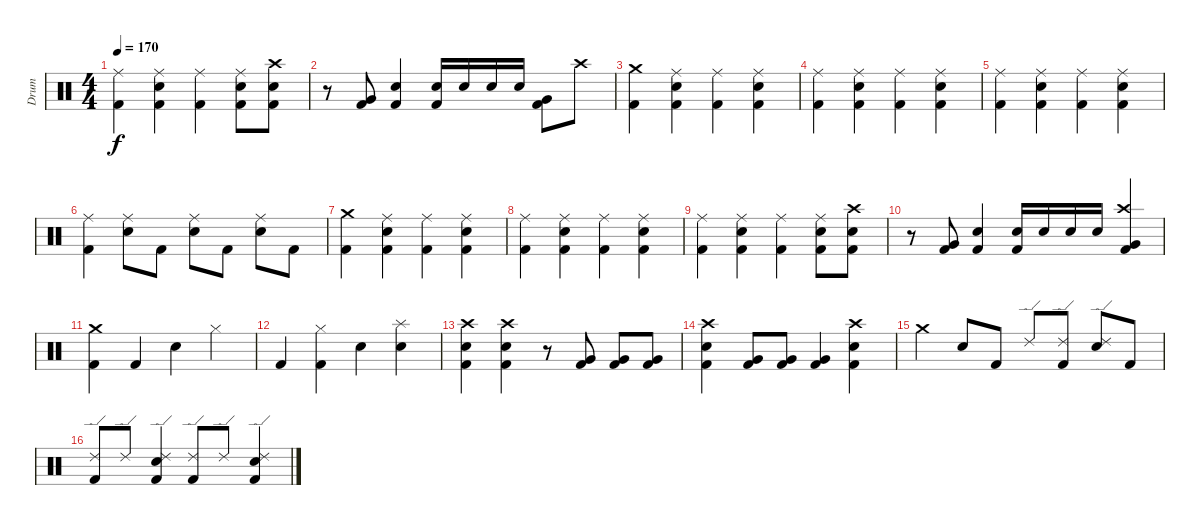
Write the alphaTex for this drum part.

\track ("Drum" "Drum") {instrument percussion}
\staff {score}
\articulation defaults
\ts (4 4)
\tempo 170
\clef neutral
\ks c
("Ride (middle)" "Kick (hit) 2").4{dy f} ("Ride (middle)" "Electric Snare (hit)" "Kick (hit) 2").4 ("Ride (middle)" "Kick (hit) 2").4 ("Ride (middle)" "Electric Snare (hit)" "Kick (hit) 2").8 ("Crash high (hit)" "Electric Snare (hit)" "Kick (hit) 2").8 |
r.8 ("Very Low Tom (hit)" "Kick (hit) 2").8 ("Electric Snare (hit)" "Kick (hit) 2").4 ("Electric Snare (hit)" "Kick (hit) 2").16 "Electric Snare (hit)".16 "Electric Snare (hit)".16 "Electric Snare (hit)".16 ("Very Low Tom (hit)" "Kick (hit) 2").8 "Crash high (hit)".8 |
("Crash medium (hit)" "Kick (hit) 2").4 ("Ride (middle)" "Electric Snare (hit)" "Kick (hit) 2").4 ("Ride (middle)" "Kick (hit) 2").4 ("Ride (middle)" "Electric Snare (hit)" "Kick (hit) 2").4 |
("Ride (middle)" "Kick (hit) 2").4 ("Ride (middle)" "Electric Snare (hit)" "Kick (hit) 2").4 ("Ride (middle)" "Kick (hit) 2").4 ("Ride (middle)" "Electric Snare (hit)" "Kick (hit) 2").4 |
("Ride (middle)" "Kick (hit) 2").4 ("Ride (middle)" "Electric Snare (hit)" "Kick (hit) 2").4 ("Ride (middle)" "Kick (hit) 2").4 ("Ride (middle)" "Electric Snare (hit)" "Kick (hit) 2").4 |
("Ride (middle)" "Kick (hit) 2").4 ("Ride (middle)" "Electric Snare (hit)").8 "Kick (hit) 2".8 ("Ride (middle)" "Electric Snare (hit)").8 "Kick (hit) 2".8 ("Ride (middle)" "Electric Snare (hit)").8 "Kick (hit) 2".8 |
("Crash medium (hit)" "Kick (hit) 2").4 ("Ride (middle)" "Electric Snare (hit)" "Kick (hit) 2").4 ("Ride (middle)" "Kick (hit) 2").4 ("Ride (middle)" "Electric Snare (hit)" "Kick (hit) 2").4 |
("Ride (middle)" "Kick (hit) 2").4 ("Ride (middle)" "Electric Snare (hit)" "Kick (hit) 2").4 ("Ride (middle)" "Kick (hit) 2").4 ("Ride (middle)" "Electric Snare (hit)" "Kick (hit) 2").4 |
("Ride (middle)" "Kick (hit) 2").4 ("Ride (middle)" "Electric Snare (hit)" "Kick (hit) 2").4 ("Ride (middle)" "Kick (hit) 2").4 ("Ride (middle)" "Electric Snare (hit)" "Kick (hit) 2").8 ("Crash high (hit)" "Electric Snare (hit)" "Kick (hit) 2").8 |
r.8 ("Very Low Tom (hit)" "Kick (hit) 2").8 ("Electric Snare (hit)" "Kick (hit) 2").4 ("Electric Snare (hit)" "Kick (hit) 2").16 "Electric Snare (hit)".16 "Electric Snare (hit)".16 "Electric Snare (hit)".16 ("Crash high (hit)" "Very Low Tom (hit)" "Kick (hit) 2").4 |
("Crash medium (hit)" "Kick (hit) 2").4 "Kick (hit) 2".4 "Electric Snare (hit)".4 "Hi-Hat (closed)".4 |
"Kick (hit) 2".4 ("Hi-Hat (closed)" "Kick (hit) 2").4 "Electric Snare (hit)".4 ("Splash (hit)" "Electric Snare (hit)").4 |
("Crash high (hit)" "Electric Snare (hit)" "Kick (hit) 2").4 ("Crash high (hit)" "Electric Snare (hit)" "Kick (hit) 2").4 r.8 ("Very Low Tom (hit)" "Kick (hit) 2").8 ("Very Low Tom (hit)" "Kick (hit) 2").8 ("Very Low Tom (hit)" "Kick (hit) 2").8 |
("Crash high (hit)" "Electric Snare (hit)" "Kick (hit) 2").4 ("Very Low Tom (hit)" "Kick (hit) 2").8 ("Very Low Tom (hit)" "Kick (hit) 2").8 ("Very Low Tom (hit)" "Kick (hit) 2").4 ("Crash high (hit)" "Electric Snare (hit)" "Kick (hit) 2").4 |
"Crash medium (hit)".4 "Electric Snare (hit)".8 "Kick (hit) 2".8 "Ride (edge) 2".8 ("Ride (edge) 2" "Kick (hit) 2").8 ("Ride (edge) 2" "Electric Snare (hit)").8 "Kick (hit) 2".8 |
("Ride (edge) 2" "Kick (hit) 2").8 "Ride (edge) 2".8 ("Ride (edge) 2" "Electric Snare (hit)" "Kick (hit) 2").4 ("Ride (edge) 2" "Kick (hit) 2").8 "Ride (edge) 2".8 ("Ride (edge) 2" "Electric Snare (hit)" "Kick (hit) 2").4
